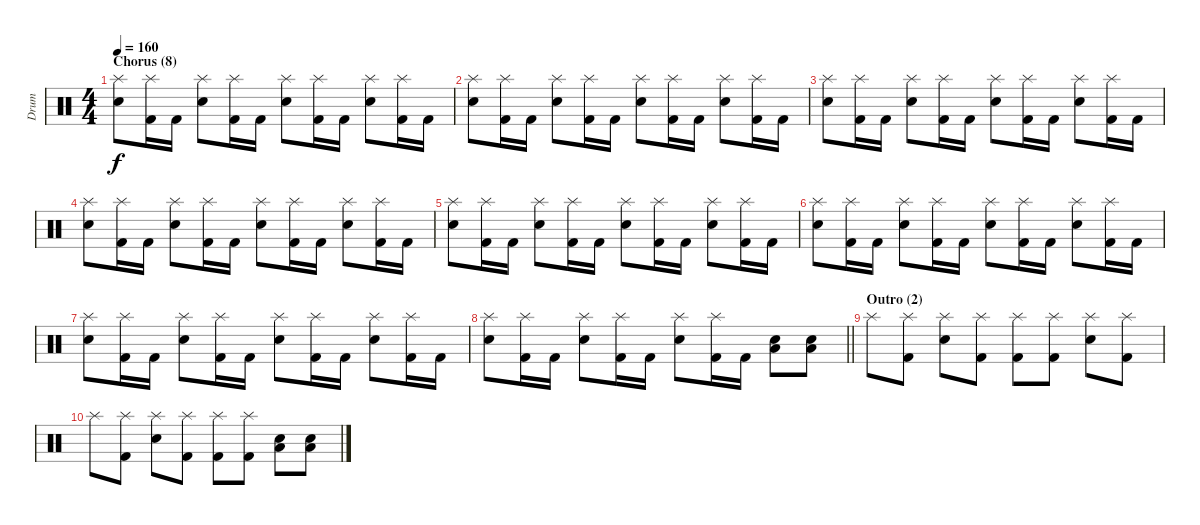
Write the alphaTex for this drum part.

\track ("Drum" "Drum") {instrument percussion}
\staff {score}
\articulation defaults
\ts (4 4)
\section ("" "Chorus (8)")
\tempo 160
\clef neutral
\ks c
("Splash (hit)" "Snare (hit) 2").8{dy f} ("Splash (hit)" "Kick (hit) 2").16 "Kick (hit) 2".16 ("Splash (hit)" "Snare (hit) 2").8 ("Splash (hit)" "Kick (hit) 2").16 "Kick (hit) 2".16 ("Splash (hit)" "Snare (hit) 2").8 ("Splash (hit)" "Kick (hit) 2").16 "Kick (hit) 2".16 ("Splash (hit)" "Snare (hit) 2").8 ("Splash (hit)" "Kick (hit) 2").16 "Kick (hit) 2".16 |
("Splash (hit)" "Snare (hit) 2").8 ("Splash (hit)" "Kick (hit) 2").16 "Kick (hit) 2".16 ("Splash (hit)" "Snare (hit) 2").8 ("Splash (hit)" "Kick (hit) 2").16 "Kick (hit) 2".16 ("Splash (hit)" "Snare (hit) 2").8 ("Splash (hit)" "Kick (hit) 2").16 "Kick (hit) 2".16 ("Splash (hit)" "Snare (hit) 2").8 ("Splash (hit)" "Kick (hit) 2").16 "Kick (hit) 2".16 |
("Splash (hit)" "Snare (hit) 2").8 ("Splash (hit)" "Kick (hit) 2").16 "Kick (hit) 2".16 ("Splash (hit)" "Snare (hit) 2").8 ("Splash (hit)" "Kick (hit) 2").16 "Kick (hit) 2".16 ("Splash (hit)" "Snare (hit) 2").8 ("Splash (hit)" "Kick (hit) 2").16 "Kick (hit) 2".16 ("Splash (hit)" "Snare (hit) 2").8 ("Splash (hit)" "Kick (hit) 2").16 "Kick (hit) 2".16 |
("Splash (hit)" "Snare (hit) 2").8 ("Splash (hit)" "Kick (hit) 2").16 "Kick (hit) 2".16 ("Splash (hit)" "Snare (hit) 2").8 ("Splash (hit)" "Kick (hit) 2").16 "Kick (hit) 2".16 ("Splash (hit)" "Snare (hit) 2").8 ("Splash (hit)" "Kick (hit) 2").16 "Kick (hit) 2".16 ("Splash (hit)" "Snare (hit) 2").8 ("Splash (hit)" "Kick (hit) 2").16 "Kick (hit) 2".16 |
("Splash (hit)" "Snare (hit) 2").8 ("Splash (hit)" "Kick (hit) 2").16 "Kick (hit) 2".16 ("Splash (hit)" "Snare (hit) 2").8 ("Splash (hit)" "Kick (hit) 2").16 "Kick (hit) 2".16 ("Splash (hit)" "Snare (hit) 2").8 ("Splash (hit)" "Kick (hit) 2").16 "Kick (hit) 2".16 ("Splash (hit)" "Snare (hit) 2").8 ("Splash (hit)" "Kick (hit) 2").16 "Kick (hit) 2".16 |
("Splash (hit)" "Snare (hit) 2").8 ("Splash (hit)" "Kick (hit) 2").16 "Kick (hit) 2".16 ("Splash (hit)" "Snare (hit) 2").8 ("Splash (hit)" "Kick (hit) 2").16 "Kick (hit) 2".16 ("Splash (hit)" "Snare (hit) 2").8 ("Splash (hit)" "Kick (hit) 2").16 "Kick (hit) 2".16 ("Splash (hit)" "Snare (hit) 2").8 ("Splash (hit)" "Kick (hit) 2").16 "Kick (hit) 2".16 |
("Splash (hit)" "Snare (hit) 2").8 ("Splash (hit)" "Kick (hit) 2").16 "Kick (hit) 2".16 ("Splash (hit)" "Snare (hit) 2").8 ("Splash (hit)" "Kick (hit) 2").16 "Kick (hit) 2".16 ("Splash (hit)" "Snare (hit) 2").8 ("Splash (hit)" "Kick (hit) 2").16 "Kick (hit) 2".16 ("Splash (hit)" "Snare (hit) 2").8 ("Splash (hit)" "Kick (hit) 2").16 "Kick (hit) 2".16 |
\barLineRight lightlight
("Splash (hit)" "Snare (hit) 2").8 ("Splash (hit)" "Kick (hit) 2").16 "Kick (hit) 2".16 ("Splash (hit)" "Snare (hit) 2").8 ("Splash (hit)" "Kick (hit) 2").16 "Kick (hit) 2".16 ("Splash (hit)" "Snare (hit) 2").8 ("Splash (hit)" "Kick (hit) 2").16 "Kick (hit) 2".16 ("Low Floor Tom (hit)" "Snare (hit) 2").8 ("Low Floor Tom (hit)" "Snare (hit) 2").8 |
\section ("" "Outro (2)")
"Splash (hit)".8 ("Splash (hit)" "Kick (hit) 2").8 ("Splash (hit)" "Snare (hit) 2").8 ("Splash (hit)" "Kick (hit) 2").8 ("Splash (hit)" "Kick (hit) 2").8 ("Splash (hit)" "Kick (hit) 2").8 ("Splash (hit)" "Snare (hit) 2").8 ("Splash (hit)" "Kick (hit) 2").8 |
"Splash (hit)".8 ("Splash (hit)" "Kick (hit) 2").8 ("Splash (hit)" "Snare (hit) 2").8 ("Splash (hit)" "Kick (hit) 2").8 ("Splash (hit)" "Kick (hit) 2").8 ("Splash (hit)" "Kick (hit) 2").8 ("Low Floor Tom (hit)" "Snare (hit) 2").8 ("Low Floor Tom (hit)" "Snare (hit) 2").8
